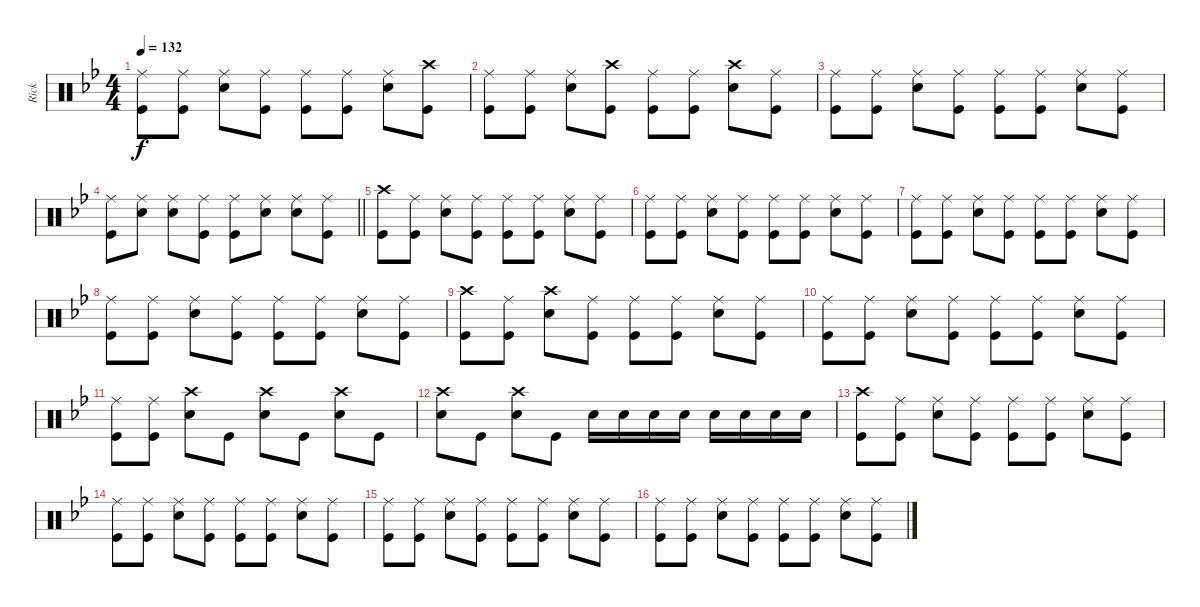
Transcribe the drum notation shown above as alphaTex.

\track ("Rick" "Rick") {instrument percussion}
\staff {score}
\articulation defaults
\ts (4 4)
\tempo 132
\clef neutral
\ks gminor
("Ride (middle)" "Kick (hit)").8{dy f} ("Ride (middle)" "Kick (hit)").8 ("Ride (middle)" "Snare (hit) 2").8 ("Ride (middle)" "Kick (hit)").8 ("Ride (middle)" "Kick (hit)").8 ("Ride (middle)" "Kick (hit)").8 ("Ride (middle)" "Snare (hit) 2").8 ("Crash high (hit)" "Kick (hit)").8 |
("Ride (middle)" "Kick (hit)").8 ("Ride (middle)" "Kick (hit)").8 ("Ride (middle)" "Snare (hit) 2").8 ("Crash high (hit)" "Kick (hit)").8 ("Ride (middle)" "Kick (hit)").8 ("Ride (middle)" "Kick (hit)").8 ("Crash high (hit)" "Snare (hit) 2").8 ("Ride (middle)" "Kick (hit)").8 |
("Ride (middle)" "Kick (hit)").8 ("Ride (middle)" "Kick (hit)").8 ("Ride (middle)" "Snare (hit) 2").8 ("Ride (middle)" "Kick (hit)").8 ("Ride (middle)" "Kick (hit)").8 ("Ride (middle)" "Kick (hit)").8 ("Ride (middle)" "Snare (hit) 2").8 ("Ride (middle)" "Kick (hit)").8 |
\barLineRight lightlight
("Ride (middle)" "Kick (hit)").8 ("Ride (middle)" "Snare (hit) 2").8 ("Ride (middle)" "Snare (hit) 2").8 ("Ride (middle)" "Kick (hit)").8 ("Ride (middle)" "Kick (hit)").8 ("Ride (middle)" "Snare (hit) 2").8 ("Ride (middle)" "Snare (hit) 2").8 ("Ride (middle)" "Kick (hit)").8 |
("Crash high (hit)" "Kick (hit)").8 ("Ride (middle)" "Kick (hit)").8 ("Ride (middle)" "Snare (hit) 2").8 ("Ride (middle)" "Kick (hit)").8 ("Ride (middle)" "Kick (hit)").8 ("Ride (middle)" "Kick (hit)").8 ("Ride (middle)" "Snare (hit) 2").8 ("Ride (middle)" "Kick (hit)").8 |
("Ride (middle)" "Kick (hit)").8 ("Ride (middle)" "Kick (hit)").8 ("Ride (middle)" "Snare (hit) 2").8 ("Ride (middle)" "Kick (hit)").8 ("Ride (middle)" "Kick (hit)").8 ("Ride (middle)" "Kick (hit)").8 ("Ride (middle)" "Snare (hit) 2").8 ("Ride (middle)" "Kick (hit)").8 |
("Ride (middle)" "Kick (hit)").8 ("Ride (middle)" "Kick (hit)").8 ("Ride (middle)" "Snare (hit) 2").8 ("Ride (middle)" "Kick (hit)").8 ("Ride (middle)" "Kick (hit)").8 ("Ride (middle)" "Kick (hit)").8 ("Ride (middle)" "Snare (hit) 2").8 ("Ride (middle)" "Kick (hit)").8 |
("Ride (middle)" "Kick (hit)").8 ("Ride (middle)" "Kick (hit)").8 ("Ride (middle)" "Snare (hit) 2").8 ("Ride (middle)" "Kick (hit)").8 ("Ride (middle)" "Kick (hit)").8 ("Ride (middle)" "Kick (hit)").8 ("Ride (middle)" "Snare (hit) 2").8 ("Ride (middle)" "Kick (hit)").8 |
("Crash high (hit)" "Kick (hit)").8 ("Ride (middle)" "Kick (hit)").8 ("Crash high (hit)" "Snare (hit) 2").8 ("Ride (middle)" "Kick (hit)").8 ("Ride (middle)" "Kick (hit)").8 ("Ride (middle)" "Kick (hit)").8 ("Ride (middle)" "Snare (hit) 2").8 ("Ride (middle)" "Kick (hit)").8 |
("Ride (middle)" "Kick (hit)").8 ("Ride (middle)" "Kick (hit)").8 ("Ride (middle)" "Snare (hit) 2").8 ("Ride (middle)" "Kick (hit)").8 ("Ride (middle)" "Kick (hit)").8 ("Ride (middle)" "Kick (hit)").8 ("Ride (middle)" "Snare (hit) 2").8 ("Ride (middle)" "Kick (hit)").8 |
("Ride (middle)" "Kick (hit)").8 ("Ride (middle)" "Kick (hit)").8 ("Crash high (hit)" "Snare (hit) 2").8 "Kick (hit)".8 ("Crash high (hit)" "Snare (hit) 2").8 "Kick (hit)".8 ("Crash high (hit)" "Snare (hit) 2").8 "Kick (hit)".8 |
("Crash high (hit)" "Snare (hit) 2").8 "Kick (hit)".8 ("Crash high (hit)" "Snare (hit) 2").8 "Kick (hit)".8 "Snare (hit) 2".16 "Snare (hit) 2".16 "Snare (hit) 2".16 "Snare (hit) 2".16 "Snare (hit) 2".16 "Snare (hit) 2".16 "Snare (hit)".16 "Snare (hit) 2".16 |
("Crash high (hit)" "Kick (hit)").8 ("Ride (middle)" "Kick (hit)").8 ("Ride (middle)" "Snare (hit) 2").8 ("Ride (middle)" "Kick (hit)").8 ("Ride (middle)" "Kick (hit)").8 ("Ride (middle)" "Kick (hit)").8 ("Ride (middle)" "Snare (hit) 2").8 ("Ride (middle)" "Kick (hit)").8 |
("Ride (middle)" "Kick (hit)").8 ("Ride (middle)" "Kick (hit)").8 ("Ride (middle)" "Snare (hit) 2").8 ("Ride (middle)" "Kick (hit)").8 ("Ride (middle)" "Kick (hit)").8 ("Ride (middle)" "Kick (hit)").8 ("Ride (middle)" "Snare (hit) 2").8 ("Ride (middle)" "Kick (hit)").8 |
("Ride (middle)" "Kick (hit)").8 ("Ride (middle)" "Kick (hit)").8 ("Ride (middle)" "Snare (hit) 2").8 ("Ride (middle)" "Kick (hit)").8 ("Ride (middle)" "Kick (hit)").8 ("Ride (middle)" "Kick (hit)").8 ("Ride (middle)" "Snare (hit) 2").8 ("Ride (middle)" "Kick (hit)").8 |
("Ride (middle)" "Kick (hit)").8 ("Ride (middle)" "Kick (hit)").8 ("Ride (middle)" "Snare (hit) 2").8 ("Ride (middle)" "Kick (hit)").8 ("Ride (middle)" "Kick (hit)").8 ("Ride (middle)" "Kick (hit)").8 ("Ride (middle)" "Snare (hit) 2").8 ("Ride (middle)" "Kick (hit)").8
